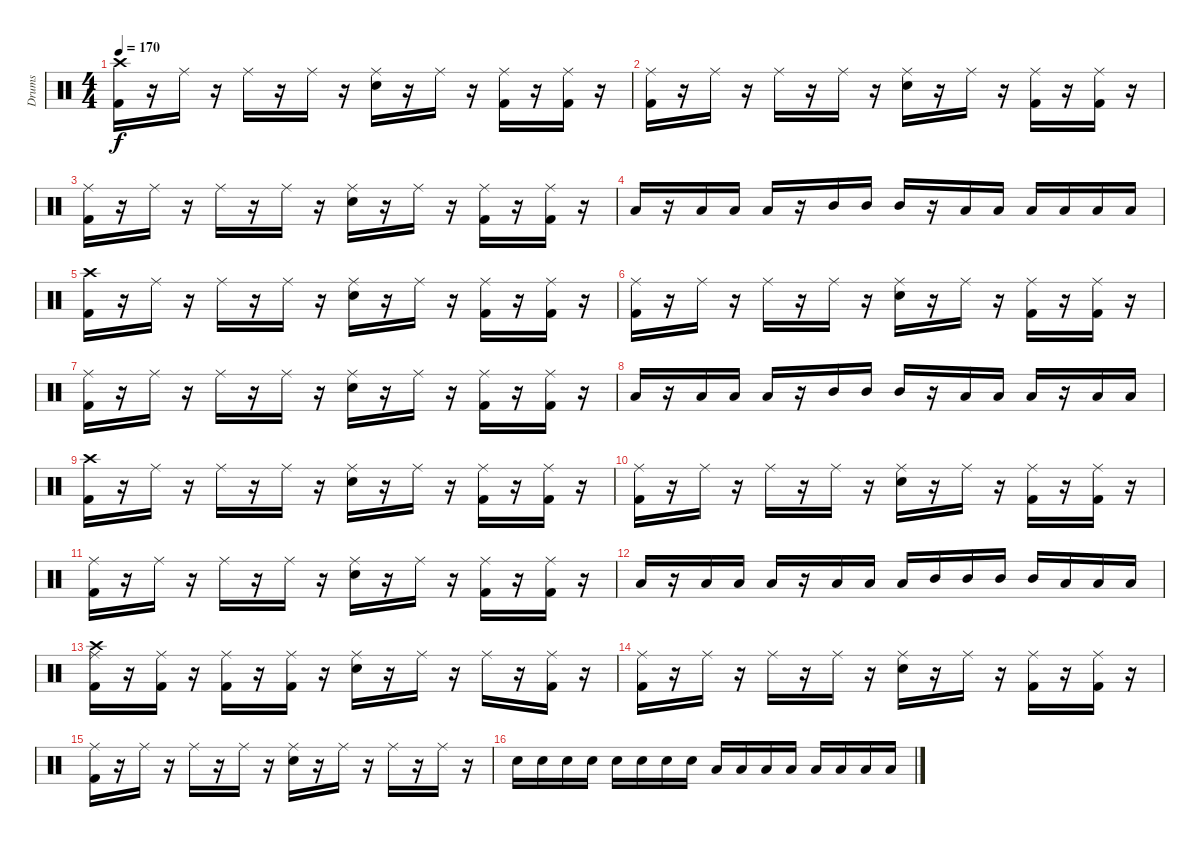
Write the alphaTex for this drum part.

\track ("Drums               " "Drums     ") {instrument percussion}
\staff {score}
\articulation defaults
\ts (4 4)
\tempo 170
\clef neutral
\ks c
("Kick (hit) 2" "Crash high (hit)").16{dy f} r.16 "Ride (middle)".16 r.16 "Ride (middle)".16 r.16 "Ride (middle)".16 r.16 ("Snare (hit) 2" "Ride (middle)").16 r.16 "Ride (middle)".16 r.16 ("Kick (hit) 2" "Ride (middle)").16 r.16 ("Kick (hit) 2" "Ride (middle)").16 r.16 |
("Kick (hit) 2" "Ride (middle)").16 r.16 "Ride (middle)".16 r.16 "Ride (middle)".16 r.16 "Ride (middle)".16 r.16 ("Snare (hit) 2" "Ride (middle)").16 r.16 "Ride (middle)".16 r.16 ("Kick (hit) 2" "Ride (middle)").16 r.16 ("Kick (hit) 2" "Ride (middle)").16 r.16 |
("Kick (hit) 2" "Ride (middle)").16 r.16 "Ride (middle)".16 r.16 "Ride (middle)".16 r.16 "Ride (middle)".16 r.16 ("Snare (hit) 2" "Ride (middle)").16 r.16 "Ride (middle)".16 r.16 ("Kick (hit) 2" "Ride (middle)").16 r.16 ("Kick (hit) 2" "Ride (middle)").16 r.16 |
"Low Tom (hit)".16 r.16 "Low Tom (hit)".16 "Low Tom (hit)".16 "Low Tom (hit)".16 r.16 "Mid Tom (hit)".16 "Mid Tom (hit)".16 "Mid Tom (hit)".16 r.16 "Low Floor Tom (hit)".16 "Low Floor Tom (hit)".16 "Low Floor Tom (hit)".16 "Low Tom (hit)".16 "Low Tom (hit)".16 "Low Tom (hit)".16 |
("Kick (hit) 2" "Crash high (hit)").16 r.16 "Ride (middle)".16 r.16 "Ride (middle)".16 r.16 "Ride (middle)".16 r.16 ("Snare (hit) 2" "Ride (middle)").16 r.16 "Ride (middle)".16 r.16 ("Kick (hit) 2" "Ride (middle)").16 r.16 ("Kick (hit) 2" "Ride (middle)").16 r.16 |
("Kick (hit) 2" "Ride (middle)").16 r.16 "Ride (middle)".16 r.16 "Ride (middle)".16 r.16 "Ride (middle)".16 r.16 ("Snare (hit) 2" "Ride (middle)").16 r.16 "Ride (middle)".16 r.16 ("Kick (hit) 2" "Ride (middle)").16 r.16 ("Kick (hit) 2" "Ride (middle)").16 r.16 |
("Kick (hit) 2" "Ride (middle)").16 r.16 "Ride (middle)".16 r.16 "Ride (middle)".16 r.16 "Ride (middle)".16 r.16 ("Snare (hit) 2" "Ride (middle)").16 r.16 "Ride (middle)".16 r.16 ("Kick (hit) 2" "Ride (middle)").16 r.16 ("Kick (hit) 2" "Ride (middle)").16 r.16 |
"Low Floor Tom (hit)".16 r.16 "Low Floor Tom (hit)".16 "Low Floor Tom (hit)".16 "Low Floor Tom (hit)".16 r.16 "Mid Tom (hit)".16 "Mid Tom (hit)".16 "Mid Tom (hit)".16 r.16 "Low Tom (hit)".16 "Low Tom (hit)".16 "Low Tom (hit)".16 r.16 "Low Tom (hit)".16 "Low Tom (hit)".16 |
("Kick (hit) 2" "Crash high (hit)").16 r.16 "Ride (middle)".16 r.16 "Ride (middle)".16 r.16 "Ride (middle)".16 r.16 ("Snare (hit) 2" "Ride (middle)").16 r.16 "Ride (middle)".16 r.16 ("Kick (hit) 2" "Ride (middle)").16 r.16 ("Kick (hit) 2" "Ride (middle)").16 r.16 |
("Kick (hit) 2" "Ride (middle)").16 r.16 "Ride (middle)".16 r.16 "Ride (middle)".16 r.16 "Ride (middle)".16 r.16 ("Snare (hit) 2" "Ride (middle)").16 r.16 "Ride (middle)".16 r.16 ("Kick (hit) 2" "Ride (middle)").16 r.16 ("Kick (hit) 2" "Ride (middle)").16 r.16 |
("Kick (hit) 2" "Ride (middle)").16 r.16 "Ride (middle)".16 r.16 "Ride (middle)".16 r.16 "Ride (middle)".16 r.16 ("Snare (hit) 2" "Ride (middle)").16 r.16 "Ride (middle)".16 r.16 ("Kick (hit) 2" "Ride (middle)").16 r.16 ("Kick (hit) 2" "Ride (middle)").16 r.16 |
"Low Floor Tom (hit)".16 r.16 "Low Floor Tom (hit)".16 "Low Floor Tom (hit)".16 "Low Floor Tom (hit)".16 r.16 "Low Tom (hit)".16 "Low Tom (hit)".16 "Low Tom (hit)".16 "Mid Tom (hit)".16 "Mid Tom (hit)".16 "Mid Tom (hit)".16 "Mid Tom (hit)".16 "Low Tom (hit)".16 "Low Tom (hit)".16 "Low Tom (hit)".16 |
("Kick (hit) 2" "Crash high (hit)" "Ride (middle)").16 r.16 ("Kick (hit) 2" "Ride (middle)").16 r.16 ("Kick (hit) 2" "Ride (middle)").16 r.16 ("Kick (hit) 2" "Ride (middle)").16 r.16 ("Snare (hit) 2" "Ride (middle)").16 r.16 "Ride (middle)".16 r.16 "Ride (middle)".16 r.16 ("Kick (hit) 2" "Ride (middle)").16 r.16 |
("Kick (hit) 2" "Ride (middle)").16 r.16 "Ride (middle)".16 r.16 "Ride (middle)".16 r.16 "Ride (middle)".16 r.16 ("Snare (hit) 2" "Ride (middle)").16 r.16 "Ride (middle)".16 r.16 ("Kick (hit) 2" "Ride (middle)").16 r.16 ("Kick (hit) 2" "Ride (middle)").16 r.16 |
("Kick (hit) 2" "Ride (middle)").16 r.16 "Ride (middle)".16 r.16 "Ride (middle)".16 r.16 "Ride (middle)".16 r.16 ("Snare (hit) 2" "Ride (middle)").16 r.16 "Ride (middle)".16 r.16 "Ride (middle)".16 r.16 "Ride (middle)".16 r.16 |
"Snare (hit) 2".16 "Snare (hit) 2".16 "Snare (hit) 2".16 "Snare (hit) 2".16 "Snare (hit) 2".16 "Snare (hit) 2".16 "Snare (hit) 2".16 "Snare (hit) 2".16 "Low Tom (hit)".16 "Low Tom (hit)".16 "Low Tom (hit)".16 "Low Tom (hit)".16 "Low Floor Tom (hit)".16 "Low Floor Tom (hit)".16 "Low Floor Tom (hit)".16 "Low Floor Tom (hit)".16
